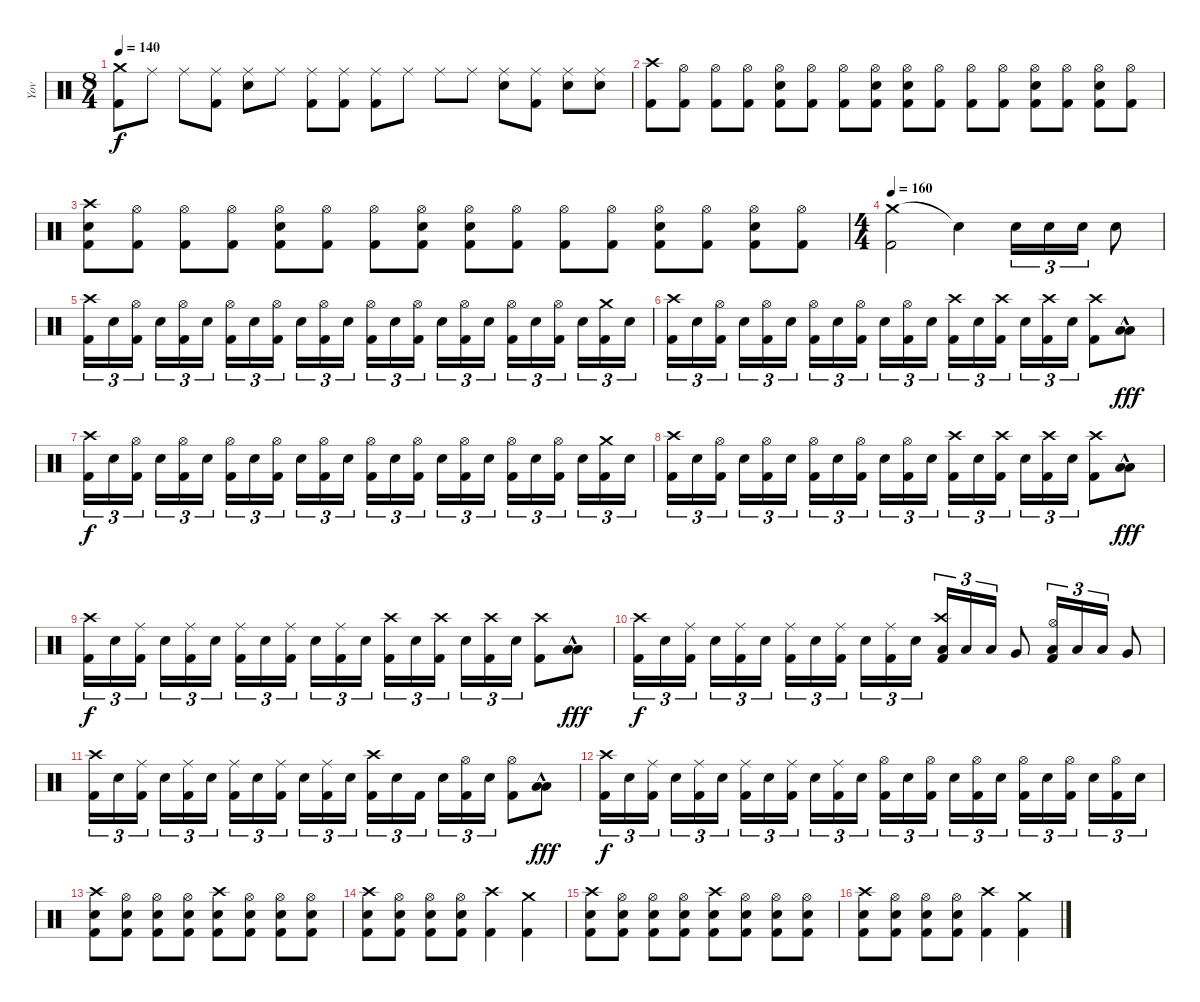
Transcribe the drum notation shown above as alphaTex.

\track ("Yov" "Yov") {instrument percussion}
\staff {score}
\articulation defaults
\ts (8 4)
\tempo 140
\clef neutral
\ks c
("Crash medium (hit)" "Kick (hit) 2").8{dy f} "Ride (middle)".8 "Ride (middle)".8 ("Ride (middle)" "Kick (hit) 2").8 ("Ride (middle)" "Electric Snare (hit)").8 "Ride (middle)".8 ("Ride (middle)" "Kick (hit) 2").8 ("Ride (middle)" "Kick (hit) 2").8 ("Ride (middle)" "Kick (hit) 2").8 "Ride (middle)".8 "Ride (middle)".8 "Ride (middle)".8 ("Ride (middle)" "Electric Snare (hit)").8 ("Ride (middle)" "Kick (hit) 2").8 ("Ride (middle)" "Electric Snare (hit)").8 ("Ride (middle)" "Electric Snare (hit)").8 |
("Crash high (hit)" "Kick (hit) 2").8 ("Hi-Hat (open)" "Kick (hit) 2").8 ("Hi-Hat (open)" "Kick (hit) 2").8 ("Hi-Hat (open)" "Kick (hit) 2").8 ("Hi-Hat (open)" "Electric Snare (hit)" "Kick (hit) 2").8 ("Hi-Hat (open)" "Kick (hit) 2").8 ("Hi-Hat (open)" "Kick (hit) 2").8 ("Hi-Hat (open)" "Electric Snare (hit)" "Kick (hit) 2").8 ("Hi-Hat (open)" "Electric Snare (hit)" "Kick (hit) 2").8 ("Hi-Hat (open)" "Kick (hit) 2").8 ("Hi-Hat (open)" "Kick (hit) 2").8 ("Hi-Hat (open)" "Kick (hit) 2").8 ("Hi-Hat (open)" "Electric Snare (hit)" "Kick (hit) 2").8 ("Hi-Hat (open)" "Kick (hit) 2").8 ("Hi-Hat (open)" "Electric Snare (hit)" "Kick (hit) 2").8 ("Hi-Hat (open)" "Kick (hit) 2").8 |
("Crash high (hit)" "Electric Snare (hit)" "Kick (hit) 2").8 ("Hi-Hat (open)" "Kick (hit) 2").8 ("Hi-Hat (open)" "Kick (hit) 2").8 ("Hi-Hat (open)" "Kick (hit) 2").8 ("Hi-Hat (open)" "Electric Snare (hit)" "Kick (hit) 2").8 ("Hi-Hat (open)" "Kick (hit) 2").8 ("Hi-Hat (open)" "Kick (hit) 2").8 ("Hi-Hat (open)" "Electric Snare (hit)" "Kick (hit) 2").8 ("Hi-Hat (open)" "Electric Snare (hit)" "Kick (hit) 2").8 ("Hi-Hat (open)" "Kick (hit) 2").8 ("Hi-Hat (open)" "Kick (hit) 2").8 ("Hi-Hat (open)" "Kick (hit) 2").8 ("Hi-Hat (open)" "Electric Snare (hit)" "Kick (hit) 2").8 ("Hi-Hat (open)" "Kick (hit) 2").8 ("Hi-Hat (open)" "Electric Snare (hit)" "Kick (hit) 2").8 ("Hi-Hat (open)" "Kick (hit) 2").8 |
\ts (4 4)
\tempo 160
("Crash medium (hit)" "Kick (hit) 2").2 "Snare (hit)"{t}.4 "Electric Snare (hit)".16{tu (3 2)} "Electric Snare (hit)".16{tu (3 2)} "Electric Snare (hit)".16{tu (3 2)} "Electric Snare (hit)".8 |
("Crash high (hit)" "Kick (hit) 2").16{tu (3 2)} "Electric Snare (hit)".16{tu (3 2)} ("Hi-Hat (open)" "Kick (hit) 2").16{tu (3 2) beam splitsecondary} "Electric Snare (hit)".16{tu (3 2)} ("Hi-Hat (open)" "Kick (hit) 2").16{tu (3 2)} "Electric Snare (hit)".16{tu (3 2)} ("Hi-Hat (open)" "Kick (hit) 2").16{tu (3 2)} "Electric Snare (hit)".16{tu (3 2)} ("Hi-Hat (open)" "Kick (hit) 2").16{tu (3 2) beam splitsecondary} "Electric Snare (hit)".16{tu (3 2)} ("Hi-Hat (open)" "Kick (hit) 2").16{tu (3 2)} "Electric Snare (hit)".16{tu (3 2)} ("Hi-Hat (open)" "Kick (hit) 2").16{tu (3 2)} "Electric Snare (hit)".16{tu (3 2)} ("Hi-Hat (open)" "Kick (hit) 2").16{tu (3 2) beam splitsecondary} "Electric Snare (hit)".16{tu (3 2)} ("Hi-Hat (open)" "Kick (hit) 2").16{tu (3 2)} "Electric Snare (hit)".16{tu (3 2)} ("Hi-Hat (open)" "Kick (hit) 2").16{tu (3 2)} "Electric Snare (hit)".16{tu (3 2)} ("Hi-Hat (open)" "Kick (hit) 2").16{tu (3 2) beam splitsecondary} "Electric Snare (hit)".16{tu (3 2)} ("Crash medium (hit)" "Kick (hit) 2").16{tu (3 2)} "Electric Snare (hit)".16{tu (3 2)} |
("Crash high (hit)" "Kick (hit) 2").16{tu (3 2)} "Electric Snare (hit)".16{tu (3 2)} ("Hi-Hat (open)" "Kick (hit) 2").16{tu (3 2) beam splitsecondary} "Electric Snare (hit)".16{tu (3 2)} ("Hi-Hat (open)" "Kick (hit) 2").16{tu (3 2)} "Electric Snare (hit)".16{tu (3 2)} ("Hi-Hat (open)" "Kick (hit) 2").16{tu (3 2)} "Electric Snare (hit)".16{tu (3 2)} ("Hi-Hat (open)" "Kick (hit) 2").16{tu (3 2) beam splitsecondary} "Electric Snare (hit)".16{tu (3 2)} ("Hi-Hat (open)" "Kick (hit) 2").16{tu (3 2)} "Electric Snare (hit)".16{tu (3 2)} ("Crash high (hit)" "Kick (hit) 2").16{tu (3 2)} "Electric Snare (hit)".16{tu (3 2)} ("Crash high (hit)" "Kick (hit) 2").16{tu (3 2) beam splitsecondary} "Electric Snare (hit)".16{tu (3 2)} ("Crash high (hit)" "Kick (hit) 2").16{tu (3 2)} "Electric Snare (hit)".16{tu (3 2)} ("Crash high (hit)" "Kick (hit) 2").8 ("Low Tom (hit)"{hac} "Low Tom (hit)"{hac}).8{dy fff} |
("Crash high (hit)" "Kick (hit) 2").16{tu (3 2) dy f} "Electric Snare (hit)".16{tu (3 2)} ("Hi-Hat (open)" "Kick (hit) 2").16{tu (3 2) beam splitsecondary} "Electric Snare (hit)".16{tu (3 2)} ("Hi-Hat (open)" "Kick (hit) 2").16{tu (3 2)} "Electric Snare (hit)".16{tu (3 2)} ("Hi-Hat (open)" "Kick (hit) 2").16{tu (3 2)} "Electric Snare (hit)".16{tu (3 2)} ("Hi-Hat (open)" "Kick (hit) 2").16{tu (3 2) beam splitsecondary} "Electric Snare (hit)".16{tu (3 2)} ("Hi-Hat (open)" "Kick (hit) 2").16{tu (3 2)} "Electric Snare (hit)".16{tu (3 2)} ("Hi-Hat (open)" "Kick (hit) 2").16{tu (3 2)} "Electric Snare (hit)".16{tu (3 2)} ("Hi-Hat (open)" "Kick (hit) 2").16{tu (3 2) beam splitsecondary} "Electric Snare (hit)".16{tu (3 2)} ("Hi-Hat (open)" "Kick (hit) 2").16{tu (3 2)} "Electric Snare (hit)".16{tu (3 2)} ("Hi-Hat (open)" "Kick (hit) 2").16{tu (3 2)} "Electric Snare (hit)".16{tu (3 2)} ("Hi-Hat (open)" "Kick (hit) 2").16{tu (3 2) beam splitsecondary} "Electric Snare (hit)".16{tu (3 2)} ("Crash medium (hit)" "Kick (hit) 2").16{tu (3 2)} "Electric Snare (hit)".16{tu (3 2)} |
("Crash high (hit)" "Kick (hit) 2").16{tu (3 2)} "Electric Snare (hit)".16{tu (3 2)} ("Hi-Hat (open)" "Kick (hit) 2").16{tu (3 2) beam splitsecondary} "Electric Snare (hit)".16{tu (3 2)} ("Hi-Hat (open)" "Kick (hit) 2").16{tu (3 2)} "Electric Snare (hit)".16{tu (3 2)} ("Hi-Hat (open)" "Kick (hit) 2").16{tu (3 2)} "Electric Snare (hit)".16{tu (3 2)} ("Hi-Hat (open)" "Kick (hit) 2").16{tu (3 2) beam splitsecondary} "Electric Snare (hit)".16{tu (3 2)} ("Hi-Hat (open)" "Kick (hit) 2").16{tu (3 2)} "Electric Snare (hit)".16{tu (3 2)} ("Crash high (hit)" "Kick (hit) 2").16{tu (3 2)} "Electric Snare (hit)".16{tu (3 2)} ("Crash high (hit)" "Kick (hit) 2").16{tu (3 2) beam splitsecondary} "Electric Snare (hit)".16{tu (3 2)} ("Crash high (hit)" "Kick (hit) 2").16{tu (3 2)} "Electric Snare (hit)".16{tu (3 2)} ("Crash high (hit)" "Kick (hit) 2").8 ("Low Tom (hit)"{hac} "Low Tom (hit)"{hac}).8{dy fff} |
("Crash high (hit)" "Kick (hit) 2").16{tu (3 2) dy f} "Electric Snare (hit)".16{tu (3 2)} ("Ride (middle)" "Kick (hit) 2").16{tu (3 2) beam splitsecondary} "Electric Snare (hit)".16{tu (3 2)} ("Ride (middle)" "Kick (hit) 2").16{tu (3 2)} "Electric Snare (hit)".16{tu (3 2)} ("Ride (middle)" "Kick (hit) 2").16{tu (3 2)} "Electric Snare (hit)".16{tu (3 2)} ("Ride (middle)" "Kick (hit) 2").16{tu (3 2) beam splitsecondary} "Electric Snare (hit)".16{tu (3 2)} ("Ride (middle)" "Kick (hit) 2").16{tu (3 2)} "Electric Snare (hit)".16{tu (3 2)} ("Crash high (hit)" "Kick (hit) 2").16{tu (3 2)} "Electric Snare (hit)".16{tu (3 2)} ("Crash high (hit)" "Kick (hit) 2").16{tu (3 2) beam splitsecondary} "Electric Snare (hit)".16{tu (3 2)} ("Crash high (hit)" "Kick (hit) 2").16{tu (3 2)} "Electric Snare (hit)".16{tu (3 2)} ("Crash high (hit)" "Kick (hit) 2").8 ("Low Tom (hit)"{hac} "Low Tom (hit)"{hac}).8{dy fff} |
("Crash high (hit)" "Kick (hit) 2").16{tu (3 2) dy f} "Electric Snare (hit)".16{tu (3 2)} ("Ride (middle)" "Kick (hit) 2").16{tu (3 2) beam splitsecondary} "Electric Snare (hit)".16{tu (3 2)} ("Ride (middle)" "Kick (hit) 2").16{tu (3 2)} "Electric Snare (hit)".16{tu (3 2)} ("Ride (middle)" "Kick (hit) 2").16{tu (3 2)} "Electric Snare (hit)".16{tu (3 2)} ("Ride (middle)" "Kick (hit) 2").16{tu (3 2) beam splitsecondary} "Electric Snare (hit)".16{tu (3 2)} ("Ride (middle)" "Kick (hit) 2").16{tu (3 2)} "Electric Snare (hit)".16{tu (3 2)} ("Crash high (hit)" "Low Tom (hit)" "Kick (hit) 2").16{tu (3 2)} "Low Tom (hit)".16{tu (3 2)} "Low Tom (hit)".16{tu (3 2)} "Very Low Tom (hit)".8 ("Hi-Hat (open)" "Low Tom (hit)" "Kick (hit) 2").16{tu (3 2)} "Low Tom (hit)".16{tu (3 2)} "Low Tom (hit)".16{tu (3 2)} "Very Low Tom (hit)".8 |
("Crash high (hit)" "Kick (hit) 2").16{tu (3 2)} "Electric Snare (hit)".16{tu (3 2)} ("Ride (middle)" "Kick (hit) 2").16{tu (3 2) beam splitsecondary} "Electric Snare (hit)".16{tu (3 2)} ("Ride (middle)" "Kick (hit) 2").16{tu (3 2)} "Electric Snare (hit)".16{tu (3 2)} ("Ride (middle)" "Kick (hit) 2").16{tu (3 2)} "Electric Snare (hit)".16{tu (3 2)} ("Ride (middle)" "Kick (hit) 2").16{tu (3 2) beam splitsecondary} "Electric Snare (hit)".16{tu (3 2)} ("Ride (middle)" "Kick (hit) 2").16{tu (3 2)} "Electric Snare (hit)".16{tu (3 2)} ("Crash high (hit)" "Kick (hit) 2").16{tu (3 2)} "Electric Snare (hit)".16{tu (3 2)} "Kick (hit) 2".16{tu (3 2) beam splitsecondary} "Electric Snare (hit)".16{tu (3 2)} ("Hi-Hat (open)" "Kick (hit) 2").16{tu (3 2)} "Electric Snare (hit)".16{tu (3 2)} ("Hi-Hat (open)" "Kick (hit) 2").8 ("Low Tom (hit)"{hac} "Low Tom (hit)"{hac}).8{dy fff} |
("Crash high (hit)" "Kick (hit) 2").16{tu (3 2) dy f} "Electric Snare (hit)".16{tu (3 2)} ("Ride (middle)" "Kick (hit) 2").16{tu (3 2) beam splitsecondary} "Electric Snare (hit)".16{tu (3 2)} ("Ride (middle)" "Kick (hit) 2").16{tu (3 2)} "Electric Snare (hit)".16{tu (3 2)} ("Ride (middle)" "Kick (hit) 2").16{tu (3 2)} "Electric Snare (hit)".16{tu (3 2)} ("Ride (middle)" "Kick (hit) 2").16{tu (3 2) beam splitsecondary} "Electric Snare (hit)".16{tu (3 2)} ("Ride (middle)" "Kick (hit) 2").16{tu (3 2)} "Electric Snare (hit)".16{tu (3 2)} ("Hi-Hat (open)" "Kick (hit) 2").16{tu (3 2)} "Electric Snare (hit)".16{tu (3 2)} ("Hi-Hat (open)" "Kick (hit) 2").16{tu (3 2) beam splitsecondary} "Electric Snare (hit)".16{tu (3 2)} ("Hi-Hat (open)" "Kick (hit) 2").16{tu (3 2)} "Electric Snare (hit)".16{tu (3 2)} ("Hi-Hat (open)" "Kick (hit) 2").16{tu (3 2)} "Electric Snare (hit)".16{tu (3 2)} ("Hi-Hat (open)" "Kick (hit) 2").16{tu (3 2) beam splitsecondary} "Electric Snare (hit)".16{tu (3 2)} ("Hi-Hat (open)" "Kick (hit) 2").16{tu (3 2)} "Electric Snare (hit)".16{tu (3 2)} |
("Crash high (hit)" "Electric Snare (hit)" "Kick (hit) 2").8 ("Hi-Hat (open)" "Electric Snare (hit)" "Kick (hit) 2").8 ("Hi-Hat (open)" "Electric Snare (hit)" "Kick (hit) 2").8 ("Hi-Hat (open)" "Electric Snare (hit)" "Kick (hit) 2").8 ("Crash high (hit)" "Electric Snare (hit)" "Kick (hit) 2").8 ("Hi-Hat (open)" "Electric Snare (hit)" "Kick (hit) 2").8 ("Hi-Hat (open)" "Electric Snare (hit)" "Kick (hit) 2").8 ("Hi-Hat (open)" "Electric Snare (hit)" "Kick (hit) 2").8 |
("Crash high (hit)" "Electric Snare (hit)" "Kick (hit) 2").8 ("Hi-Hat (open)" "Electric Snare (hit)" "Kick (hit) 2").8 ("Hi-Hat (open)" "Electric Snare (hit)" "Kick (hit) 2").8 ("Hi-Hat (open)" "Electric Snare (hit)" "Kick (hit) 2").8 ("Crash high (hit)" "Kick (hit) 2").4 ("Crash medium (hit)" "Kick (hit) 2").4 |
("Crash high (hit)" "Electric Snare (hit)" "Kick (hit) 2").8 ("Hi-Hat (open)" "Electric Snare (hit)" "Kick (hit) 2").8 ("Hi-Hat (open)" "Electric Snare (hit)" "Kick (hit) 2").8 ("Hi-Hat (open)" "Electric Snare (hit)" "Kick (hit) 2").8 ("Crash high (hit)" "Electric Snare (hit)" "Kick (hit) 2").8 ("Hi-Hat (open)" "Electric Snare (hit)" "Kick (hit) 2").8 ("Hi-Hat (open)" "Electric Snare (hit)" "Kick (hit) 2").8 ("Hi-Hat (open)" "Electric Snare (hit)" "Kick (hit) 2").8 |
("Crash high (hit)" "Electric Snare (hit)" "Kick (hit) 2").8 ("Hi-Hat (open)" "Electric Snare (hit)" "Kick (hit) 2").8 ("Hi-Hat (open)" "Electric Snare (hit)" "Kick (hit) 2").8 ("Hi-Hat (open)" "Electric Snare (hit)" "Kick (hit) 2").8 ("Crash high (hit)" "Kick (hit) 2").4 ("Crash medium (hit)" "Kick (hit) 2").4
